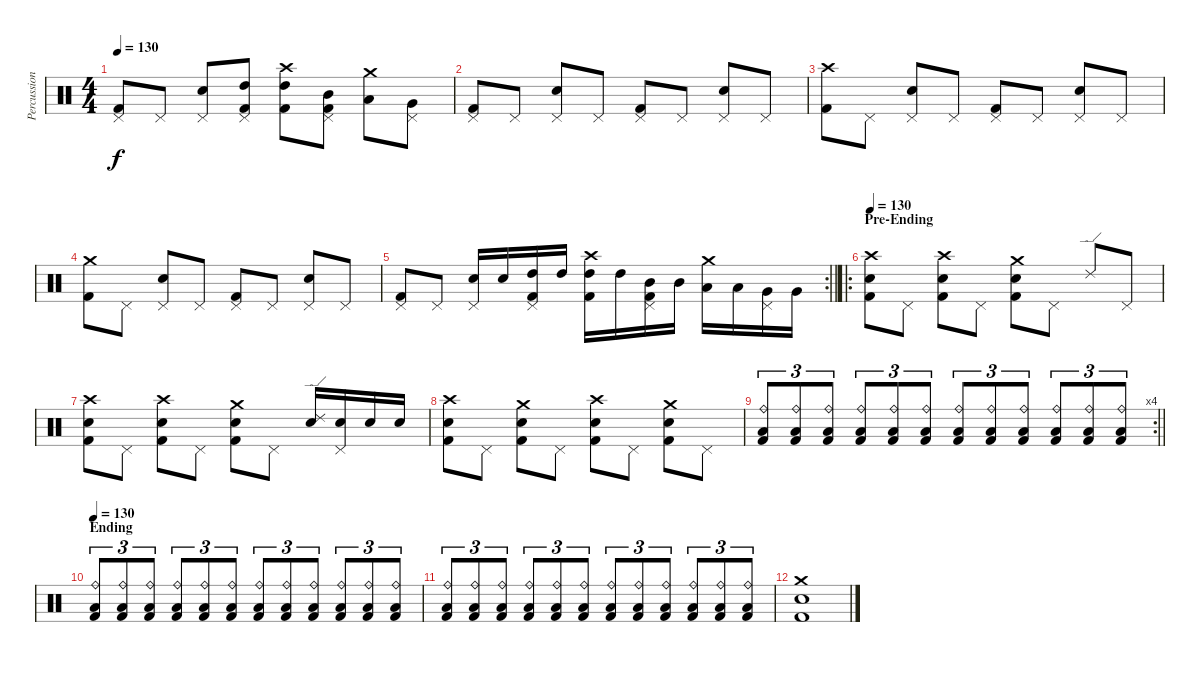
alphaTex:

\track ("Percussion" "Percussion") {instrument percussion}
\staff {score}
\articulation defaults
\ts (4 4)
\tempo 130
\clef neutral
\ks c
("Pedal Hi-Hat (hit)" "Kick (hit) 2").8{dy f} "Pedal Hi-Hat (hit)".8 ("Pedal Hi-Hat (hit)" "Snare (hit) 2").8 ("Pedal Hi-Hat (hit)" "High Tom (hit)" "Kick (hit) 2").8 ("Crash high (hit)" "High Tom (hit)" "Kick (hit) 2").8 ("Pedal Hi-Hat (hit)" "Mid Tom (hit)" "Kick (hit) 2").8 ("Crash medium (hit)" "Low Tom (hit)").8 ("Pedal Hi-Hat (hit)" "Very Low Tom (hit)").8 |
("Pedal Hi-Hat (hit)" "Kick (hit) 2").8 "Pedal Hi-Hat (hit)".8 ("Pedal Hi-Hat (hit)" "Snare (hit) 2").8 "Pedal Hi-Hat (hit)".8 ("Pedal Hi-Hat (hit)" "Kick (hit) 2").8 "Pedal Hi-Hat (hit)".8 ("Pedal Hi-Hat (hit)" "Snare (hit) 2").8 "Pedal Hi-Hat (hit)".8 |
("Crash high (hit)" "Kick (hit) 2").8 "Pedal Hi-Hat (hit)".8 ("Pedal Hi-Hat (hit)" "Snare (hit) 2").8 "Pedal Hi-Hat (hit)".8 ("Pedal Hi-Hat (hit)" "Kick (hit) 2").8 "Pedal Hi-Hat (hit)".8 ("Pedal Hi-Hat (hit)" "Snare (hit) 2").8 "Pedal Hi-Hat (hit)".8 |
("Crash medium (hit)" "Kick (hit) 2").8 "Pedal Hi-Hat (hit)".8 ("Pedal Hi-Hat (hit)" "Snare (hit) 2").8 "Pedal Hi-Hat (hit)".8 ("Pedal Hi-Hat (hit)" "Kick (hit) 2").8 "Pedal Hi-Hat (hit)".8 ("Pedal Hi-Hat (hit)" "Snare (hit) 2").8 "Pedal Hi-Hat (hit)".8 |
\rc 2
\barLineRight lightlight
("Pedal Hi-Hat (hit)" "Kick (hit) 2").8 "Pedal Hi-Hat (hit)".8 ("Pedal Hi-Hat (hit)" "Snare (hit) 2").16 "Snare (hit) 2".16 ("Pedal Hi-Hat (hit)" "High Tom (hit)" "Kick (hit) 2").16 "High Tom (hit)".16 ("Crash high (hit)" "High Tom (hit)" "Kick (hit) 2").16 "High Tom (hit)".16 ("Pedal Hi-Hat (hit)" "Mid Tom (hit)" "Kick (hit) 2").16 "Mid Tom (hit)".16 ("Crash medium (hit)" "Low Tom (hit)").16 "Low Tom (hit)".16 ("Pedal Hi-Hat (hit)" "Very Low Tom (hit)").16 "Very Low Tom (hit)".16 |
\ro
\section ("" "Pre-Ending")
\tempo 130
("Crash high (hit)" "Snare (hit) 2" "Kick (hit) 2").8 "Pedal Hi-Hat (hit)".8 ("Crash high (hit)" "Snare (hit) 2" "Kick (hit) 2").8 "Pedal Hi-Hat (hit)".8 ("Crash medium (hit)" "Snare (hit) 2" "Kick (hit) 2").8 "Pedal Hi-Hat (hit)".8 "Ride (edge) 2".8 "Pedal Hi-Hat (hit)".8 |
("Crash high (hit)" "Snare (hit) 2" "Kick (hit) 2").8 "Pedal Hi-Hat (hit)".8 ("Crash high (hit)" "Snare (hit) 2" "Kick (hit) 2").8 "Pedal Hi-Hat (hit)".8 ("Crash medium (hit)" "Snare (hit) 2" "Kick (hit) 2").8 "Pedal Hi-Hat (hit)".8 ("Ride (edge) 2" "Snare (hit) 2").16 ("Pedal Hi-Hat (hit)" "Snare (hit) 2").16 "Snare (hit) 2".16 "Snare (hit) 2".16 |
("Crash high (hit)" "Snare (hit) 2" "Kick (hit) 2").8 "Pedal Hi-Hat (hit)".8 ("Crash medium (hit)" "Snare (hit) 2" "Kick (hit) 2").8 "Pedal Hi-Hat (hit)".8 ("Crash high (hit)" "Snare (hit) 2" "Kick (hit) 2").8 "Pedal Hi-Hat (hit)".8 ("Crash medium (hit)" "Snare (hit) 2" "Kick (hit) 2").8 "Pedal Hi-Hat (hit)".8 |
\rc 4
\barLineRight lightlight
("Ride (bell)" "Low Floor Tom (hit)" "Kick (hit) 2").8{tu (3 2)} ("Ride (bell)" "Low Floor Tom (hit)" "Kick (hit) 2").8{tu (3 2)} ("Ride (bell)" "Low Floor Tom (hit)" "Kick (hit) 2").8{tu (3 2)} ("Ride (bell)" "Low Floor Tom (hit)" "Kick (hit) 2").8{tu (3 2)} ("Ride (bell)" "Low Floor Tom (hit)" "Kick (hit) 2").8{tu (3 2)} ("Ride (bell)" "Low Floor Tom (hit)" "Kick (hit) 2").8{tu (3 2)} ("Ride (bell)" "Low Floor Tom (hit)" "Kick (hit) 2").8{tu (3 2)} ("Ride (bell)" "Low Floor Tom (hit)" "Kick (hit) 2").8{tu (3 2)} ("Ride (bell)" "Low Floor Tom (hit)" "Kick (hit) 2").8{tu (3 2)} ("Ride (bell)" "Low Floor Tom (hit)" "Kick (hit) 2").8{tu (3 2)} ("Ride (bell)" "Low Floor Tom (hit)" "Kick (hit) 2").8{tu (3 2)} ("Ride (bell)" "Low Floor Tom (hit)" "Kick (hit) 2").8{tu (3 2)} |
\section ("" "Ending")
\tempo 130
("Ride (bell)" "Low Floor Tom (hit)" "Kick (hit) 2").8{tu (3 2)} ("Ride (bell)" "Low Floor Tom (hit)" "Kick (hit) 2").8{tu (3 2)} ("Ride (bell)" "Low Floor Tom (hit)" "Kick (hit) 2").8{tu (3 2)} ("Ride (bell)" "Low Floor Tom (hit)" "Kick (hit) 2").8{tu (3 2)} ("Ride (bell)" "Low Floor Tom (hit)" "Kick (hit) 2").8{tu (3 2)} ("Ride (bell)" "Low Floor Tom (hit)" "Kick (hit) 2").8{tu (3 2)} ("Ride (bell)" "Low Floor Tom (hit)" "Kick (hit) 2").8{tu (3 2)} ("Ride (bell)" "Low Floor Tom (hit)" "Kick (hit) 2").8{tu (3 2)} ("Ride (bell)" "Low Floor Tom (hit)" "Kick (hit) 2").8{tu (3 2)} ("Ride (bell)" "Low Floor Tom (hit)" "Kick (hit) 2").8{tu (3 2)} ("Ride (bell)" "Low Floor Tom (hit)" "Kick (hit) 2").8{tu (3 2)} ("Ride (bell)" "Low Floor Tom (hit)" "Kick (hit) 2").8{tu (3 2)} |
("Ride (bell)" "Low Floor Tom (hit)" "Kick (hit) 2").8{tu (3 2)} ("Ride (bell)" "Low Floor Tom (hit)" "Kick (hit) 2").8{tu (3 2)} ("Ride (bell)" "Low Floor Tom (hit)" "Kick (hit) 2").8{tu (3 2)} ("Ride (bell)" "Low Floor Tom (hit)" "Kick (hit) 2").8{tu (3 2)} ("Ride (bell)" "Low Floor Tom (hit)" "Kick (hit) 2").8{tu (3 2)} ("Ride (bell)" "Low Floor Tom (hit)" "Kick (hit) 2").8{tu (3 2)} ("Ride (bell)" "Low Floor Tom (hit)" "Kick (hit) 2").8{tu (3 2)} ("Ride (bell)" "Low Floor Tom (hit)" "Kick (hit) 2").8{tu (3 2)} ("Ride (bell)" "Low Floor Tom (hit)" "Kick (hit) 2").8{tu (3 2)} ("Ride (bell)" "Low Floor Tom (hit)" "Kick (hit) 2").8{tu (3 2)} ("Ride (bell)" "Low Floor Tom (hit)" "Kick (hit) 2").8{tu (3 2)} ("Ride (bell)" "Low Floor Tom (hit)" "Kick (hit) 2").8{tu (3 2)} |
("Crash medium (hit)" "Snare (hit) 2" "Kick (hit) 2").1
